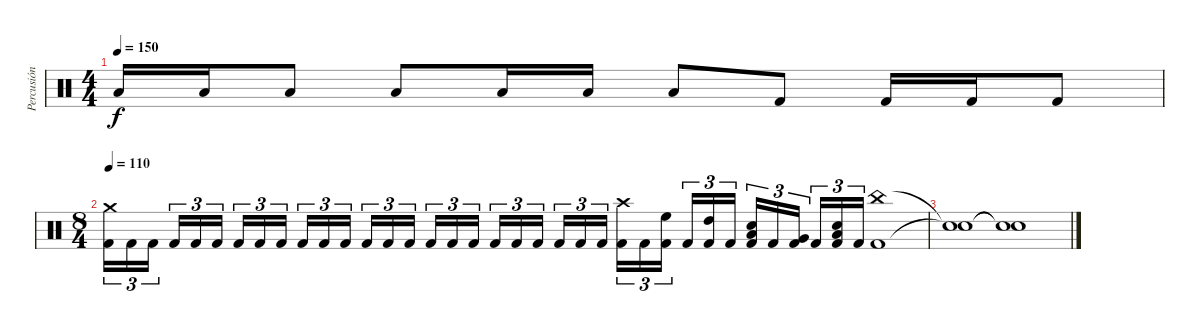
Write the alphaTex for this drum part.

\track ("Percusión" "Percusión") {instrument percussion}
\staff {score}
\articulation defaults
\ts (4 4)
\tempo 150
\clef neutral
\ks c "Low Tom (hit)".16{dy f} "Low Tom (hit)".16 "Low Tom (hit)".8 "Low Floor Tom (hit)".8 "Low Floor Tom (hit)".16 "Low Floor Tom (hit)".16 "Low Floor Tom (hit)".8 "Kick (hit) 2".8 "Kick (hit) 2".16 "Kick (hit) 2".16 "Kick (hit) 2".8
|
\ts (8 4)
\tempo 110
("Crash medium (hit)" "Kick (hit) 2").16{tu (3 2)} "Kick (hit) 2".16{tu (3 2)} "Kick (hit) 2".16{tu (3 2) beam splitsecondary} "Kick (hit) 2".16{tu (3 2)} "Kick (hit) 2".16{tu (3 2)} "Kick (hit) 2".16{tu (3 2)} "Kick (hit) 2".16{tu (3 2)} "Kick (hit) 2".16{tu (3 2)} "Kick (hit) 2".16{tu (3 2) beam splitsecondary} "Kick (hit) 2".16{tu (3 2)} "Kick (hit) 2".16{tu (3 2)} "Kick (hit) 2".16{tu (3 2)} "Kick (hit) 2".16{tu (3 2)} "Kick (hit) 2".16{tu (3 2)} "Kick (hit) 2".16{tu (3 2) beam splitsecondary} "Kick (hit) 2".16{tu (3 2)} "Kick (hit) 2".16{tu (3 2)} "Kick (hit) 2".16{tu (3 2)} "Kick (hit) 2".16{tu (3 2)} "Kick (hit) 2".16{tu (3 2)} "Kick (hit) 2".16{tu (3 2) beam splitsecondary} "Kick (hit) 2".16{tu (3 2)} "Kick (hit) 2".16{tu (3 2)} "Kick (hit) 2".16{tu (3 2)} ("Crash high (hit)" "Kick (hit) 2").16{tu (3 2)} "Kick (hit) 2".16{tu (3 2)} ("High Floor Tom (hit)" "Kick (hit) 2").16{tu (3 2) beam splitsecondary} "Kick (hit) 2".16{tu (3 2)} ("High Tom (hit)" "Kick (hit) 2").16{tu (3 2)} "Kick (hit) 2".16{tu (3 2)} ("Low Tom (hit)" "Electric Snare (hit)" "Kick (hit) 2").16{tu (3 2)} "Kick (hit) 2".16{tu (3 2)} ("Very Low Tom (hit)" "Kick (hit) 2").16{tu (3 2) beam splitsecondary} "Kick (hit) 2".16{tu (3 2)} ("Low Floor Tom (hit)" "Electric Snare (hit)" "Kick (hit) 2").16{tu (3 2)} "Kick (hit) 2".16{tu (3 2)} ("China (hit)" "Kick (hit) 2").1 |
("Snare (hit)"{t} "Snare (hit)"{t}).1 ("Snare (hit)"{t} "Snare (hit)"{t}).1
